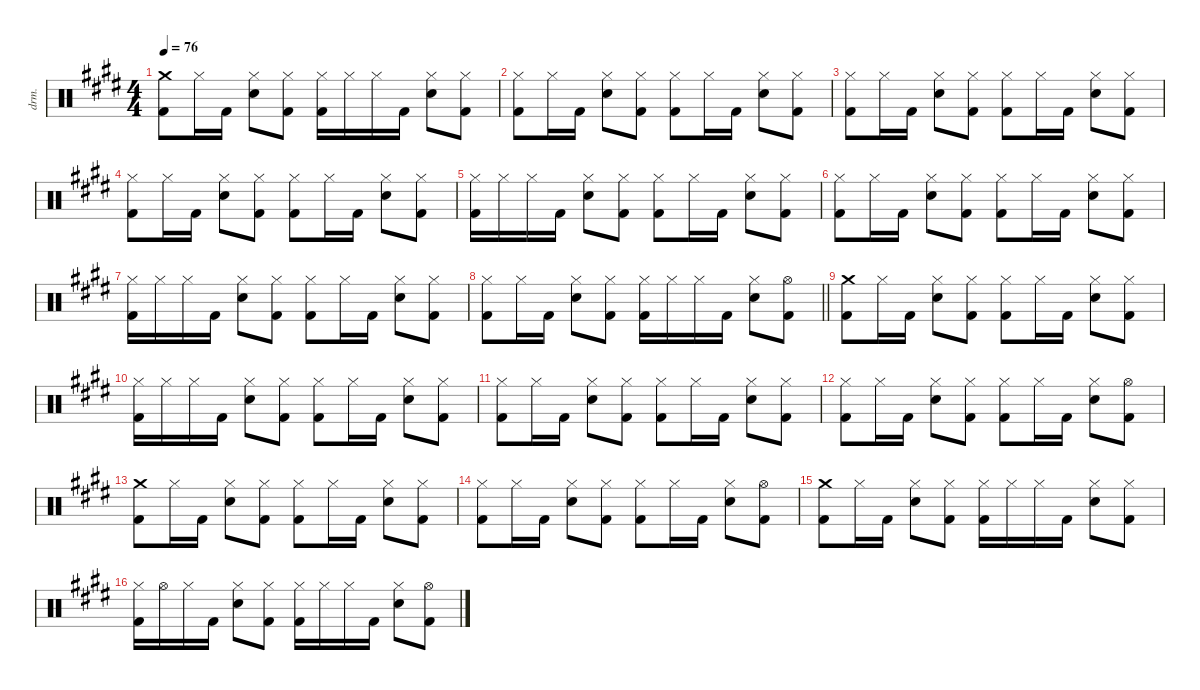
\defaultSystemsLayout 4
\hideDynamics
\bracketExtendMode nobrackets
\otherSystemsTrackNameOrientation horizontal
\track ("Drums" "drm.") {defaultSystemsLayout 4 instrument percussion}
\staff {score}
\articulation defaults
\ts (4 4)
\tempo 76
\clef neutral
\ks e
("Crash medium (hit)"{acc forcenatural} "Kick (hit) 2"{acc forcenatural}).8{dy f beam Down} "Hi-Hat (closed)"{acc forcenatural}.16{beam Down} "Kick (hit) 2"{acc forcenatural}.16{beam Down} ("Hi-Hat (closed)"{acc forcenatural} "Snare (hit) 2"{acc forcenatural}).8{dy mf beam Down} ("Hi-Hat (closed)"{acc forcenatural} "Kick (hit) 2"{acc forcenatural}).8{dy f beam Down} ("Hi-Hat (closed)"{acc forcenatural} "Kick (hit) 2"{acc forcenatural}).16{beam Down} "Hi-Hat (closed)"{acc forcenatural}.16{dy mf beam Down} "Hi-Hat (closed)"{acc forcenatural}.16{dy f beam Down} "Kick (hit) 2"{acc forcenatural}.16{beam Down} ("Hi-Hat (closed)"{acc forcenatural} "Snare (hit) 2"{acc forcenatural}).8{dy mf beam Down} ("Hi-Hat (closed)"{acc forcenatural} "Kick (hit) 2"{acc forcenatural}).8{dy f beam Down} |
("Hi-Hat (closed)"{acc forcenatural} "Kick (hit) 2"{acc forcenatural}).8{beam Down} "Hi-Hat (closed)"{acc forcenatural}.16{beam Down} "Kick (hit) 2"{acc forcenatural}.16{beam Down} ("Hi-Hat (closed)"{acc forcenatural} "Snare (hit) 2"{acc forcenatural}).8{dy mf beam Down} ("Hi-Hat (closed)"{acc forcenatural} "Kick (hit) 2"{acc forcenatural}).8{dy f beam Down} ("Hi-Hat (closed)"{acc forcenatural} "Kick (hit) 2"{acc forcenatural}).8{beam Down} "Hi-Hat (closed)"{acc forcenatural}.16{beam Down} "Kick (hit) 2"{acc forcenatural}.16{beam Down} ("Hi-Hat (closed)"{acc forcenatural} "Snare (hit) 2"{acc forcenatural}).8{dy mf beam Down} ("Hi-Hat (closed)"{acc forcenatural} "Kick (hit) 2"{acc forcenatural}).8{dy f beam Down} |
("Hi-Hat (closed)"{acc forcenatural} "Kick (hit) 2"{acc forcenatural}).8{beam Down} "Hi-Hat (closed)"{acc forcenatural}.16{beam Down} "Kick (hit) 2"{acc forcenatural}.16{beam Down} ("Hi-Hat (closed)"{acc forcenatural} "Snare (hit) 2"{acc forcenatural}).8{dy mf beam Down} ("Hi-Hat (closed)"{acc forcenatural} "Kick (hit) 2"{acc forcenatural}).8{dy f beam Down} ("Hi-Hat (closed)"{acc forcenatural} "Kick (hit) 2"{acc forcenatural}).8{beam Down} "Hi-Hat (closed)"{acc forcenatural}.16{beam Down} "Kick (hit) 2"{acc forcenatural}.16{beam Down} ("Hi-Hat (closed)"{acc forcenatural} "Snare (hit) 2"{acc forcenatural}).8{dy mf beam Down} ("Hi-Hat (closed)"{acc forcenatural} "Kick (hit) 2"{acc forcenatural}).8{dy f beam Down} |
("Hi-Hat (closed)"{acc forcenatural} "Kick (hit) 2"{acc forcenatural}).8{beam Down} "Hi-Hat (closed)"{acc forcenatural}.16{beam Down} "Kick (hit) 2"{acc forcenatural}.16{beam Down} ("Hi-Hat (closed)"{acc forcenatural} "Snare (hit) 2"{acc forcenatural}).8{dy mf beam Down} ("Hi-Hat (closed)"{acc forcenatural} "Kick (hit) 2"{acc forcenatural}).8{dy f beam Down} ("Hi-Hat (closed)"{acc forcenatural} "Kick (hit) 2"{acc forcenatural}).8{beam Down} "Hi-Hat (closed)"{acc forcenatural}.16{beam Down} "Kick (hit) 2"{acc forcenatural}.16{beam Down} ("Hi-Hat (closed)"{acc forcenatural} "Snare (hit) 2"{acc forcenatural}).8{dy mf beam Down} ("Hi-Hat (closed)"{acc forcenatural} "Kick (hit) 2"{acc forcenatural}).8{dy f beam Down} |
("Hi-Hat (closed)"{acc forcenatural} "Kick (hit) 2"{acc forcenatural}).16{beam Down} "Hi-Hat (closed)"{acc forcenatural}.16{dy mf beam Down} "Hi-Hat (closed)"{acc forcenatural}.16{dy f beam Down} "Kick (hit) 2"{acc forcenatural}.16{beam Down} ("Hi-Hat (closed)"{acc forcenatural} "Snare (hit) 2"{acc forcenatural}).8{dy mf beam Down} ("Hi-Hat (closed)"{acc forcenatural} "Kick (hit) 2"{acc forcenatural}).8{dy f beam Down} ("Hi-Hat (closed)"{acc forcenatural} "Kick (hit) 2"{acc forcenatural}).8{beam Down} "Hi-Hat (closed)"{acc forcenatural}.16{beam Down} "Kick (hit) 2"{acc forcenatural}.16{beam Down} ("Hi-Hat (closed)"{acc forcenatural} "Snare (hit) 2"{acc forcenatural}).8{dy mf beam Down} ("Hi-Hat (closed)"{acc forcenatural} "Kick (hit) 2"{acc forcenatural}).8{dy f beam Down} |
("Hi-Hat (closed)"{acc forcenatural} "Kick (hit) 2"{acc forcenatural}).8{beam Down} "Hi-Hat (closed)"{acc forcenatural}.16{beam Down} "Kick (hit) 2"{acc forcenatural}.16{beam Down} ("Hi-Hat (closed)"{acc forcenatural} "Snare (hit) 2"{acc forcenatural}).8{dy mf beam Down} ("Hi-Hat (closed)"{acc forcenatural} "Kick (hit) 2"{acc forcenatural}).8{dy f beam Down} ("Hi-Hat (closed)"{acc forcenatural} "Kick (hit) 2"{acc forcenatural}).8{beam Down} "Hi-Hat (closed)"{acc forcenatural}.16{beam Down} "Kick (hit) 2"{acc forcenatural}.16{beam Down} ("Hi-Hat (closed)"{acc forcenatural} "Snare (hit) 2"{acc forcenatural}).8{dy mf beam Down} ("Hi-Hat (closed)"{acc forcenatural} "Kick (hit) 2"{acc forcenatural}).8{dy f beam Down} |
("Hi-Hat (closed)"{acc forcenatural} "Kick (hit) 2"{acc forcenatural}).16{beam Down} "Hi-Hat (closed)"{acc forcenatural}.16{dy mf beam Down} "Hi-Hat (closed)"{acc forcenatural}.16{dy f beam Down} "Kick (hit) 2"{acc forcenatural}.16{beam Down} ("Hi-Hat (closed)"{acc forcenatural} "Snare (hit) 2"{acc forcenatural}).8{dy mf beam Down} ("Hi-Hat (closed)"{acc forcenatural} "Kick (hit) 2"{acc forcenatural}).8{dy f beam Down} ("Hi-Hat (closed)"{acc forcenatural} "Kick (hit) 2"{acc forcenatural}).8{beam Down} "Hi-Hat (closed)"{acc forcenatural}.16{beam Down} "Kick (hit) 2"{acc forcenatural}.16{beam Down} ("Hi-Hat (closed)"{acc forcenatural} "Snare (hit) 2"{acc forcenatural}).8{dy mf beam Down} ("Hi-Hat (closed)"{acc forcenatural} "Kick (hit) 2"{acc forcenatural}).8{dy f beam Down} |
\barLineRight lightlight
("Hi-Hat (closed)"{acc forcenatural} "Kick (hit) 2"{acc forcenatural}).8{beam Down} "Hi-Hat (closed)"{acc forcenatural}.16{beam Down} "Kick (hit) 2"{acc forcenatural}.16{beam Down} ("Hi-Hat (closed)"{acc forcenatural} "Snare (hit) 2"{acc forcenatural}).8{dy mf beam Down} ("Hi-Hat (closed)"{acc forcenatural} "Kick (hit) 2"{acc forcenatural}).8{dy f beam Down} ("Hi-Hat (closed)"{acc forcenatural} "Kick (hit) 2"{acc forcenatural}).16{beam Down} "Hi-Hat (closed)"{acc forcenatural}.16{dy mf beam Down} "Hi-Hat (closed)"{acc forcenatural}.16{dy f beam Down} "Kick (hit) 2"{acc forcenatural}.16{beam Down} ("Hi-Hat (closed)"{acc forcenatural} "Snare (hit) 2"{acc forcenatural}).8{dy mf beam Down} ("Hi-Hat (open)"{acc forcenatural} "Kick (hit) 2"{acc forcenatural}).8{dy f beam Down} |
("Crash medium (hit)"{acc forcenatural} "Kick (hit) 2"{acc forcenatural}).8{beam Down} "Hi-Hat (closed)"{acc forcenatural}.16{beam Down} "Kick (hit) 2"{acc forcenatural}.16{beam Down} ("Hi-Hat (closed)"{acc forcenatural} "Snare (hit) 2"{acc forcenatural}).8{dy mf beam Down} ("Hi-Hat (closed)"{acc forcenatural} "Kick (hit) 2"{acc forcenatural}).8{dy f beam Down} ("Hi-Hat (closed)"{acc forcenatural} "Kick (hit) 2"{acc forcenatural}).8{beam Down} "Hi-Hat (closed)"{acc forcenatural}.16{beam Down} "Kick (hit) 2"{acc forcenatural}.16{beam Down} ("Hi-Hat (closed)"{acc forcenatural} "Snare (hit) 2"{acc forcenatural}).8{dy mf beam Down} ("Hi-Hat (closed)"{acc forcenatural} "Kick (hit) 2"{acc forcenatural}).8{dy f beam Down} |
("Hi-Hat (closed)"{acc forcenatural} "Kick (hit) 2"{acc forcenatural}).16{beam Down} "Hi-Hat (closed)"{acc forcenatural}.16{dy mf beam Down} "Hi-Hat (closed)"{acc forcenatural}.16{dy f beam Down} "Kick (hit) 2"{acc forcenatural}.16{beam Down} ("Hi-Hat (closed)"{acc forcenatural} "Snare (hit) 2"{acc forcenatural}).8{dy mf beam Down} ("Hi-Hat (closed)"{acc forcenatural} "Kick (hit) 2"{acc forcenatural}).8{dy f beam Down} ("Hi-Hat (closed)"{acc forcenatural} "Kick (hit) 2"{acc forcenatural}).8{beam Down} "Hi-Hat (closed)"{acc forcenatural}.16{beam Down} "Kick (hit) 2"{acc forcenatural}.16{beam Down} ("Hi-Hat (closed)"{acc forcenatural} "Snare (hit) 2"{acc forcenatural}).8{dy mf beam Down} ("Hi-Hat (closed)"{acc forcenatural} "Kick (hit) 2"{acc forcenatural}).8{dy f beam Down} |
("Hi-Hat (closed)"{acc forcenatural} "Kick (hit) 2"{acc forcenatural}).8{beam Down} "Hi-Hat (closed)"{acc forcenatural}.16{beam Down} "Kick (hit) 2"{acc forcenatural}.16{beam Down} ("Hi-Hat (closed)"{acc forcenatural} "Snare (hit) 2"{acc forcenatural}).8{dy mf beam Down} ("Hi-Hat (closed)"{acc forcenatural} "Kick (hit) 2"{acc forcenatural}).8{dy f beam Down} ("Hi-Hat (closed)"{acc forcenatural} "Kick (hit) 2"{acc forcenatural}).8{beam Down} "Hi-Hat (closed)"{acc forcenatural}.16{beam Down} "Kick (hit) 2"{acc forcenatural}.16{beam Down} ("Hi-Hat (closed)"{acc forcenatural} "Snare (hit) 2"{acc forcenatural}).8{dy mf beam Down} ("Hi-Hat (closed)"{acc forcenatural} "Kick (hit) 2"{acc forcenatural}).8{dy f beam Down} |
("Hi-Hat (closed)"{acc forcenatural} "Kick (hit) 2"{acc forcenatural}).8{beam Down} "Hi-Hat (closed)"{acc forcenatural}.16{beam Down} "Kick (hit) 2"{acc forcenatural}.16{beam Down} ("Hi-Hat (closed)"{acc forcenatural} "Snare (hit) 2"{acc forcenatural}).8{dy mf beam Down} ("Hi-Hat (closed)"{acc forcenatural} "Kick (hit) 2"{acc forcenatural}).8{dy f beam Down} ("Hi-Hat (closed)"{acc forcenatural} "Kick (hit) 2"{acc forcenatural}).8{beam Down} "Hi-Hat (closed)"{acc forcenatural}.16{beam Down} "Kick (hit) 2"{acc forcenatural}.16{beam Down} ("Hi-Hat (closed)"{acc forcenatural} "Snare (hit) 2"{acc forcenatural}).8{dy mf beam Down} ("Hi-Hat (open)"{acc forcenatural} "Kick (hit) 2"{acc forcenatural}).8{dy f beam Down} |
("Crash medium (hit)"{acc forcenatural} "Kick (hit) 2"{acc forcenatural}).8{beam Down} "Hi-Hat (closed)"{acc forcenatural}.16{beam Down} "Kick (hit) 2"{acc forcenatural}.16{beam Down} ("Hi-Hat (closed)"{acc forcenatural} "Snare (hit) 2"{acc forcenatural}).8{dy mf beam Down} ("Hi-Hat (closed)"{acc forcenatural} "Kick (hit) 2"{acc forcenatural}).8{dy f beam Down} ("Hi-Hat (closed)"{acc forcenatural} "Kick (hit) 2"{acc forcenatural}).8{beam Down} "Hi-Hat (closed)"{acc forcenatural}.16{beam Down} "Kick (hit) 2"{acc forcenatural}.16{beam Down} ("Hi-Hat (closed)"{acc forcenatural} "Snare (hit) 2"{acc forcenatural}).8{dy mf beam Down} ("Hi-Hat (closed)"{acc forcenatural} "Kick (hit) 2"{acc forcenatural}).8{dy f beam Down} |
("Hi-Hat (closed)"{acc forcenatural} "Kick (hit) 2"{acc forcenatural}).8{beam Down} "Hi-Hat (closed)"{acc forcenatural}.16{beam Down} "Kick (hit) 2"{acc forcenatural}.16{beam Down} ("Hi-Hat (closed)"{acc forcenatural} "Snare (hit) 2"{acc forcenatural}).8{dy mf beam Down} ("Hi-Hat (closed)"{acc forcenatural} "Kick (hit) 2"{acc forcenatural}).8{dy f beam Down} ("Hi-Hat (closed)"{acc forcenatural} "Kick (hit) 2"{acc forcenatural}).8{beam Down} "Hi-Hat (closed)"{acc forcenatural}.16{beam Down} "Kick (hit) 2"{acc forcenatural}.16{beam Down} ("Hi-Hat (closed)"{acc forcenatural} "Snare (hit) 2"{acc forcenatural}).8{dy mf beam Down} ("Hi-Hat (open)"{acc forcenatural} "Kick (hit) 2"{acc forcenatural}).8{dy f beam Down} |
("Crash medium (hit)"{acc forcenatural} "Kick (hit) 2"{acc forcenatural}).8{beam Down} "Hi-Hat (closed)"{acc forcenatural}.16{beam Down} "Kick (hit) 2"{acc forcenatural}.16{beam Down} ("Hi-Hat (closed)"{acc forcenatural} "Snare (hit) 2"{acc forcenatural}).8{dy mf beam Down} ("Hi-Hat (closed)"{acc forcenatural} "Kick (hit) 2"{acc forcenatural}).8{dy f beam Down} ("Hi-Hat (closed)"{acc forcenatural} "Kick (hit) 2"{acc forcenatural}).16{beam Down} "Hi-Hat (closed)"{acc forcenatural}.16{dy mf beam Down} "Hi-Hat (closed)"{acc forcenatural}.16{dy f beam Down} "Kick (hit) 2"{acc forcenatural}.16{beam Down} ("Hi-Hat (closed)"{acc forcenatural} "Snare (hit) 2"{acc forcenatural}).8{dy mf beam Down} ("Hi-Hat (closed)"{acc forcenatural} "Kick (hit) 2"{acc forcenatural}).8{dy f beam Down} |
("Hi-Hat (closed)"{acc forcenatural} "Kick (hit) 2"{acc forcenatural}).16{beam Down} "Hi-Hat (open)"{acc forcenatural}.16{beam Down} "Hi-Hat (closed)"{acc forcenatural}.16{beam Down} "Kick (hit) 2"{acc forcenatural}.16{beam Down} ("Hi-Hat (closed)"{acc forcenatural} "Snare (hit) 2"{acc forcenatural}).8{dy mf beam Down} ("Hi-Hat (closed)"{acc forcenatural} "Kick (hit) 2"{acc forcenatural}).8{dy f beam Down} ("Hi-Hat (closed)"{acc forcenatural} "Kick (hit) 2"{acc forcenatural}).16{beam Down} "Hi-Hat (closed)"{acc forcenatural}.16{dy mf beam Down} "Hi-Hat (closed)"{acc forcenatural}.16{dy f beam Down} "Kick (hit) 2"{acc forcenatural}.16{beam Down} ("Hi-Hat (closed)"{acc forcenatural} "Snare (hit) 2"{acc forcenatural}).8{dy mf beam Down} ("Hi-Hat (open)"{acc forcenatural} "Kick (hit) 2"{acc forcenatural}).8{dy f beam Down}
